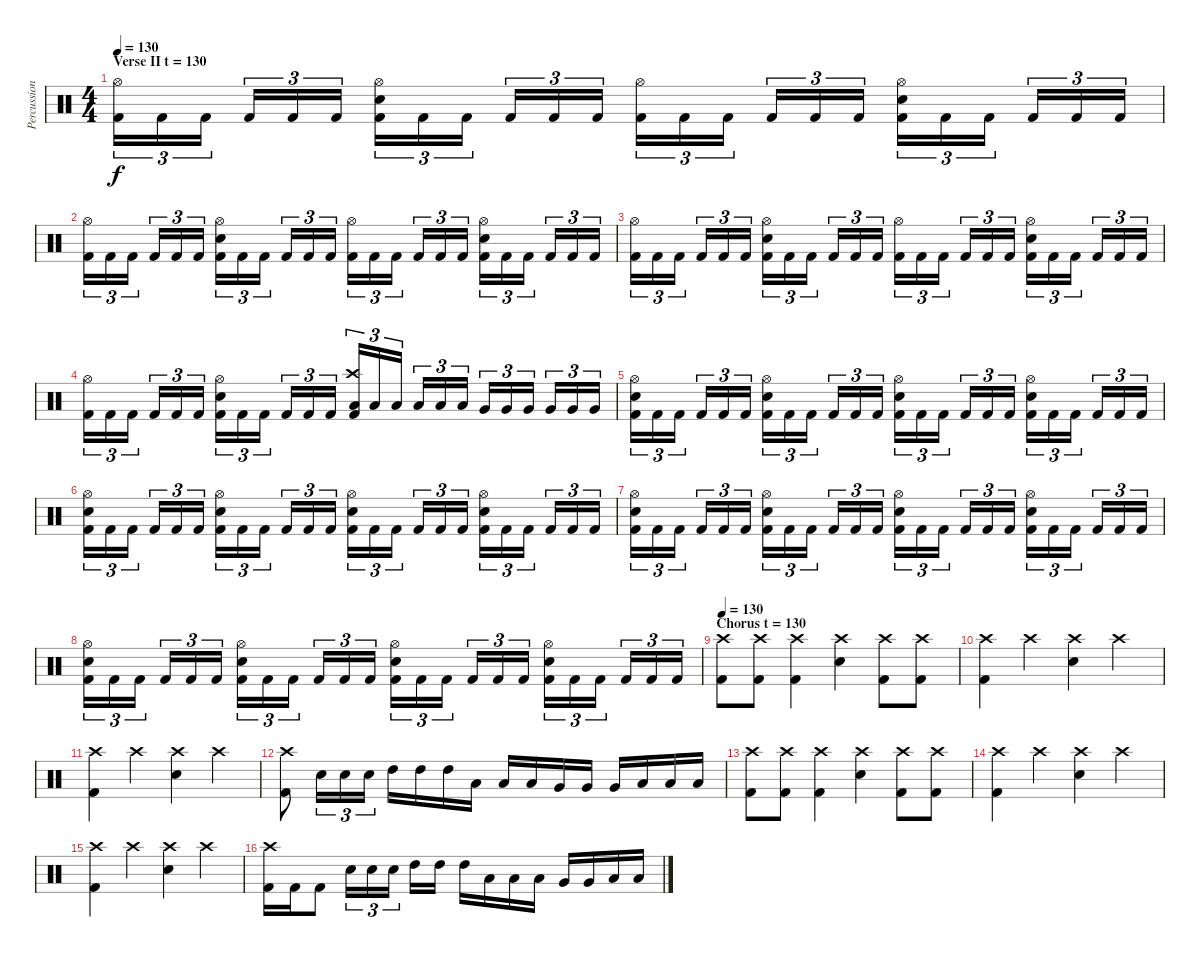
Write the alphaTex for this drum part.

\track ("Percussion" "Percussion") {instrument percussion}
\staff {score}
\articulation defaults
\ts (4 4)
\section ("" "Verse II t = 130")
\tempo 130
\clef neutral
\ks c
("Hi-Hat (open)" "Kick (hit) 2").16{tu (3 2) dy f} "Kick (hit) 2".16{tu (3 2)} "Kick (hit) 2".16{tu (3 2)} "Kick (hit) 2".16{tu (3 2)} "Kick (hit) 2".16{tu (3 2)} "Kick (hit) 2".16{tu (3 2)} ("Hi-Hat (open)" "Electric Snare (hit)" "Kick (hit) 2").16{tu (3 2)} "Kick (hit) 2".16{tu (3 2)} "Kick (hit) 2".16{tu (3 2)} "Kick (hit) 2".16{tu (3 2)} "Kick (hit) 2".16{tu (3 2)} "Kick (hit) 2".16{tu (3 2)} ("Hi-Hat (open)" "Kick (hit) 2").16{tu (3 2)} "Kick (hit) 2".16{tu (3 2)} "Kick (hit) 2".16{tu (3 2)} "Kick (hit) 2".16{tu (3 2)} "Kick (hit) 2".16{tu (3 2)} "Kick (hit) 2".16{tu (3 2)} ("Hi-Hat (open)" "Electric Snare (hit)" "Kick (hit) 2").16{tu (3 2)} "Kick (hit) 2".16{tu (3 2)} "Kick (hit) 2".16{tu (3 2)} "Kick (hit) 2".16{tu (3 2)} "Kick (hit) 2".16{tu (3 2)} "Kick (hit) 2".16{tu (3 2)} |
("Hi-Hat (open)" "Kick (hit) 2").16{tu (3 2)} "Kick (hit) 2".16{tu (3 2)} "Kick (hit) 2".16{tu (3 2)} "Kick (hit) 2".16{tu (3 2)} "Kick (hit) 2".16{tu (3 2)} "Kick (hit) 2".16{tu (3 2)} ("Hi-Hat (open)" "Electric Snare (hit)" "Kick (hit) 2").16{tu (3 2)} "Kick (hit) 2".16{tu (3 2)} "Kick (hit) 2".16{tu (3 2)} "Kick (hit) 2".16{tu (3 2)} "Kick (hit) 2".16{tu (3 2)} "Kick (hit) 2".16{tu (3 2)} ("Hi-Hat (open)" "Kick (hit) 2").16{tu (3 2)} "Kick (hit) 2".16{tu (3 2)} "Kick (hit) 2".16{tu (3 2)} "Kick (hit) 2".16{tu (3 2)} "Kick (hit) 2".16{tu (3 2)} "Kick (hit) 2".16{tu (3 2)} ("Hi-Hat (open)" "Electric Snare (hit)" "Kick (hit) 2").16{tu (3 2)} "Kick (hit) 2".16{tu (3 2)} "Kick (hit) 2".16{tu (3 2)} "Kick (hit) 2".16{tu (3 2)} "Kick (hit) 2".16{tu (3 2)} "Kick (hit) 2".16{tu (3 2)} |
("Hi-Hat (open)" "Kick (hit) 2").16{tu (3 2)} "Kick (hit) 2".16{tu (3 2)} "Kick (hit) 2".16{tu (3 2)} "Kick (hit) 2".16{tu (3 2)} "Kick (hit) 2".16{tu (3 2)} "Kick (hit) 2".16{tu (3 2)} ("Hi-Hat (open)" "Electric Snare (hit)" "Kick (hit) 2").16{tu (3 2)} "Kick (hit) 2".16{tu (3 2)} "Kick (hit) 2".16{tu (3 2)} "Kick (hit) 2".16{tu (3 2)} "Kick (hit) 2".16{tu (3 2)} "Kick (hit) 2".16{tu (3 2)} ("Hi-Hat (open)" "Kick (hit) 2").16{tu (3 2)} "Kick (hit) 2".16{tu (3 2)} "Kick (hit) 2".16{tu (3 2)} "Kick (hit) 2".16{tu (3 2)} "Kick (hit) 2".16{tu (3 2)} "Kick (hit) 2".16{tu (3 2)} ("Hi-Hat (open)" "Electric Snare (hit)" "Kick (hit) 2").16{tu (3 2)} "Kick (hit) 2".16{tu (3 2)} "Kick (hit) 2".16{tu (3 2)} "Kick (hit) 2".16{tu (3 2)} "Kick (hit) 2".16{tu (3 2)} "Kick (hit) 2".16{tu (3 2)} |
("Hi-Hat (open)" "Kick (hit) 2").16{tu (3 2)} "Kick (hit) 2".16{tu (3 2)} "Kick (hit) 2".16{tu (3 2)} "Kick (hit) 2".16{tu (3 2)} "Kick (hit) 2".16{tu (3 2)} "Kick (hit) 2".16{tu (3 2)} ("Hi-Hat (open)" "Electric Snare (hit)" "Kick (hit) 2").16{tu (3 2)} "Kick (hit) 2".16{tu (3 2)} "Kick (hit) 2".16{tu (3 2)} "Kick (hit) 2".16{tu (3 2)} "Kick (hit) 2".16{tu (3 2)} "Kick (hit) 2".16{tu (3 2)} ("Crash high (hit)" "Low Tom (hit)" "Kick (hit) 2").16{tu (3 2)} "Low Tom (hit)".16{tu (3 2)} "Low Tom (hit)".16{tu (3 2)} "Low Tom (hit)".16{tu (3 2)} "Low Tom (hit)".16{tu (3 2)} "Low Tom (hit)".16{tu (3 2)} "Very Low Tom (hit)".16{tu (3 2)} "Very Low Tom (hit)".16{tu (3 2)} "Very Low Tom (hit)".16{tu (3 2)} "Very Low Tom (hit)".16{tu (3 2)} "Very Low Tom (hit)".16{tu (3 2)} "Very Low Tom (hit)".16{tu (3 2)} |
("Hi-Hat (open)" "Electric Snare (hit)" "Kick (hit) 2").16{tu (3 2)} "Kick (hit) 2".16{tu (3 2)} "Kick (hit) 2".16{tu (3 2)} "Kick (hit) 2".16{tu (3 2)} "Kick (hit) 2".16{tu (3 2)} "Kick (hit) 2".16{tu (3 2)} ("Hi-Hat (open)" "Electric Snare (hit)" "Kick (hit) 2").16{tu (3 2)} "Kick (hit) 2".16{tu (3 2)} "Kick (hit) 2".16{tu (3 2)} "Kick (hit) 2".16{tu (3 2)} "Kick (hit) 2".16{tu (3 2)} "Kick (hit) 2".16{tu (3 2)} ("Hi-Hat (open)" "Electric Snare (hit)" "Kick (hit) 2").16{tu (3 2)} "Kick (hit) 2".16{tu (3 2)} "Kick (hit) 2".16{tu (3 2)} "Kick (hit) 2".16{tu (3 2)} "Kick (hit) 2".16{tu (3 2)} "Kick (hit) 2".16{tu (3 2)} ("Hi-Hat (open)" "Electric Snare (hit)" "Kick (hit) 2").16{tu (3 2)} "Kick (hit) 2".16{tu (3 2)} "Kick (hit) 2".16{tu (3 2)} "Kick (hit) 2".16{tu (3 2)} "Kick (hit) 2".16{tu (3 2)} "Kick (hit) 2".16{tu (3 2)} |
("Hi-Hat (open)" "Electric Snare (hit)" "Kick (hit) 2").16{tu (3 2)} "Kick (hit) 2".16{tu (3 2)} "Kick (hit) 2".16{tu (3 2)} "Kick (hit) 2".16{tu (3 2)} "Kick (hit) 2".16{tu (3 2)} "Kick (hit) 2".16{tu (3 2)} ("Hi-Hat (open)" "Electric Snare (hit)" "Kick (hit) 2").16{tu (3 2)} "Kick (hit) 2".16{tu (3 2)} "Kick (hit) 2".16{tu (3 2)} "Kick (hit) 2".16{tu (3 2)} "Kick (hit) 2".16{tu (3 2)} "Kick (hit) 2".16{tu (3 2)} ("Hi-Hat (open)" "Electric Snare (hit)" "Kick (hit) 2").16{tu (3 2)} "Kick (hit) 2".16{tu (3 2)} "Kick (hit) 2".16{tu (3 2)} "Kick (hit) 2".16{tu (3 2)} "Kick (hit) 2".16{tu (3 2)} "Kick (hit) 2".16{tu (3 2)} ("Hi-Hat (open)" "Electric Snare (hit)" "Kick (hit) 2").16{tu (3 2)} "Kick (hit) 2".16{tu (3 2)} "Kick (hit) 2".16{tu (3 2)} "Kick (hit) 2".16{tu (3 2)} "Kick (hit) 2".16{tu (3 2)} "Kick (hit) 2".16{tu (3 2)} |
("Hi-Hat (open)" "Electric Snare (hit)" "Kick (hit) 2").16{tu (3 2)} "Kick (hit) 2".16{tu (3 2)} "Kick (hit) 2".16{tu (3 2)} "Kick (hit) 2".16{tu (3 2)} "Kick (hit) 2".16{tu (3 2)} "Kick (hit) 2".16{tu (3 2)} ("Hi-Hat (open)" "Electric Snare (hit)" "Kick (hit) 2").16{tu (3 2)} "Kick (hit) 2".16{tu (3 2)} "Kick (hit) 2".16{tu (3 2)} "Kick (hit) 2".16{tu (3 2)} "Kick (hit) 2".16{tu (3 2)} "Kick (hit) 2".16{tu (3 2)} ("Hi-Hat (open)" "Electric Snare (hit)" "Kick (hit) 2").16{tu (3 2)} "Kick (hit) 2".16{tu (3 2)} "Kick (hit) 2".16{tu (3 2)} "Kick (hit) 2".16{tu (3 2)} "Kick (hit) 2".16{tu (3 2)} "Kick (hit) 2".16{tu (3 2)} ("Hi-Hat (open)" "Electric Snare (hit)" "Kick (hit) 2").16{tu (3 2)} "Kick (hit) 2".16{tu (3 2)} "Kick (hit) 2".16{tu (3 2)} "Kick (hit) 2".16{tu (3 2)} "Kick (hit) 2".16{tu (3 2)} "Kick (hit) 2".16{tu (3 2)} |
("Hi-Hat (open)" "Electric Snare (hit)" "Kick (hit) 2").16{tu (3 2)} "Kick (hit) 2".16{tu (3 2)} "Kick (hit) 2".16{tu (3 2)} "Kick (hit) 2".16{tu (3 2)} "Kick (hit) 2".16{tu (3 2)} "Kick (hit) 2".16{tu (3 2)} ("Hi-Hat (open)" "Electric Snare (hit)" "Kick (hit) 2").16{tu (3 2)} "Kick (hit) 2".16{tu (3 2)} "Kick (hit) 2".16{tu (3 2)} "Kick (hit) 2".16{tu (3 2)} "Kick (hit) 2".16{tu (3 2)} "Kick (hit) 2".16{tu (3 2)} ("Hi-Hat (open)" "Electric Snare (hit)" "Kick (hit) 2").16{tu (3 2)} "Kick (hit) 2".16{tu (3 2)} "Kick (hit) 2".16{tu (3 2)} "Kick (hit) 2".16{tu (3 2)} "Kick (hit) 2".16{tu (3 2)} "Kick (hit) 2".16{tu (3 2)} ("Hi-Hat (open)" "Electric Snare (hit)" "Kick (hit) 2").16{tu (3 2)} "Kick (hit) 2".16{tu (3 2)} "Kick (hit) 2".16{tu (3 2)} "Kick (hit) 2".16{tu (3 2)} "Kick (hit) 2".16{tu (3 2)} "Kick (hit) 2".16{tu (3 2)} |
\section ("" "Chorus t = 130")
\tempo 130
("Crash high (hit)" "Kick (hit) 2").8 ("Crash high (hit)" "Kick (hit) 2").8 ("Crash high (hit)" "Kick (hit) 2").4 ("Crash high (hit)" "Electric Snare (hit)").4 ("Crash high (hit)" "Kick (hit) 2").8 ("Crash high (hit)" "Kick (hit) 2").8 |
("Crash high (hit)" "Kick (hit) 2").4 "Crash high (hit)".4 ("Crash high (hit)" "Electric Snare (hit)").4 "Crash high (hit)".4 |
("Crash high (hit)" "Kick (hit) 2").4 "Crash high (hit)".4 ("Crash high (hit)" "Electric Snare (hit)").4 "Crash high (hit)".4 |
("Crash high (hit)" "Kick (hit) 2").8 "Electric Snare (hit)".16{tu (3 2)} "Electric Snare (hit)".16{tu (3 2)} "Electric Snare (hit)".16{tu (3 2)} "High Tom (hit)".16 "High Tom (hit)".16 "High Tom (hit)".16 "Low Tom (hit)".16 "Low Tom (hit)".16 "Low Tom (hit)".16 "Very Low Tom (hit)".16 "Very Low Tom (hit)".16 "Very Low Tom (hit)".16 "Low Floor Tom (hit)".16 "Low Floor Tom (hit)".16 "Low Floor Tom (hit)".16 |
("Crash high (hit)" "Kick (hit) 2").8 ("Crash high (hit)" "Kick (hit) 2").8 ("Crash high (hit)" "Kick (hit) 2").4 ("Crash high (hit)" "Electric Snare (hit)").4 ("Crash high (hit)" "Kick (hit) 2").8 ("Crash high (hit)" "Kick (hit) 2").8 |
("Crash high (hit)" "Kick (hit) 2").4 "Crash high (hit)".4 ("Crash high (hit)" "Electric Snare (hit)").4 "Crash high (hit)".4 |
("Crash high (hit)" "Kick (hit) 2").4 "Crash high (hit)".4 ("Crash high (hit)" "Electric Snare (hit)").4 "Crash high (hit)".4 |
("Crash high (hit)" "Kick (hit) 2").16 "Kick (hit) 2".16 "Kick (hit) 2".8 "Electric Snare (hit)".16{tu (3 2)} "Electric Snare (hit)".16{tu (3 2)} "Electric Snare (hit)".16{tu (3 2)} "High Tom (hit)".16 "High Tom (hit)".16 "High Tom (hit)".16 "Low Tom (hit)".16 "Low Tom (hit)".16 "Low Tom (hit)".16 "Very Low Tom (hit)".16 "Very Low Tom (hit)".16 "Low Floor Tom (hit)".16 "Low Floor Tom (hit)".16
